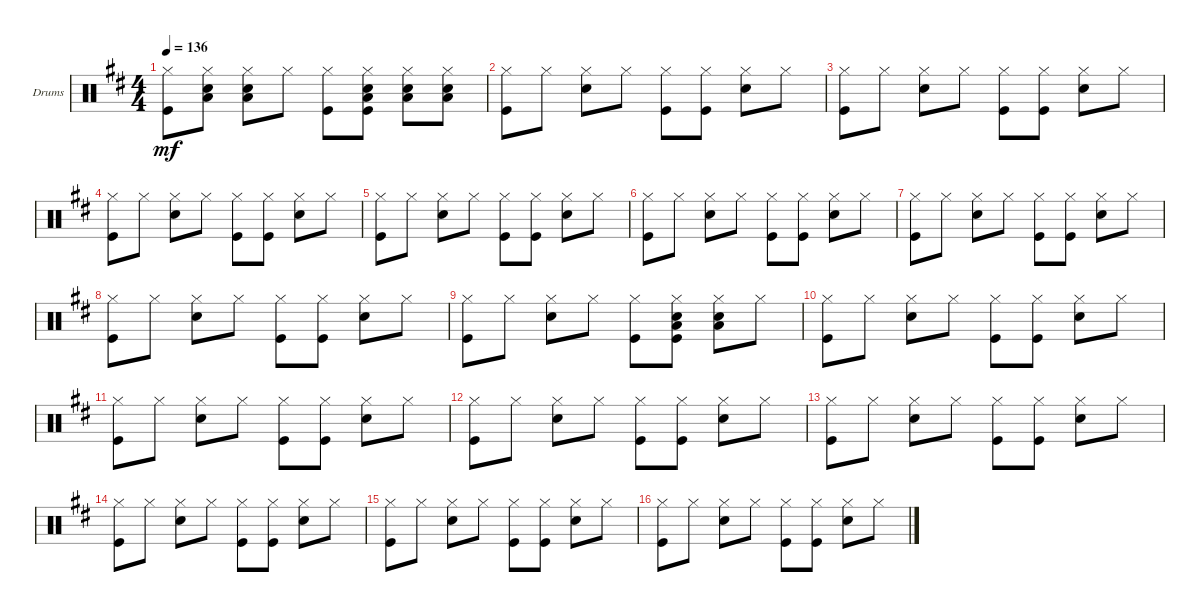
\defaultSystemsLayout 4
\bracketExtendMode groupsimilarinstruments
\firstSystemTrackNameOrientation horizontal
\otherSystemsTrackNameOrientation horizontal
\track ("Greg Bissonette Drums" "Drums") {instrument percussion}
\staff {score}
\articulation defaults
\ts (4 4)
\tempo 136
\clef neutral
\scale
0.333333
\ks d
("Kick (hit)" "Hi-Hat (closed)").8{dy mf} ("Snare (hit) 2" "Hi-Hat (closed)" "Low Tom (hit)").8 ("Snare (hit) 2" "Hi-Hat (closed)" "Low Tom (hit)").8 "Hi-Hat (closed)".8 ("Kick (hit)" "Hi-Hat (closed)").8 ("Kick (hit)" "Snare (hit) 2" "Hi-Hat (closed)" "Low Tom (hit)").8 ("Snare (hit) 2" "Hi-Hat (closed)" "Low Tom (hit)").8 ("Snare (hit) 2" "Hi-Hat (closed)" "Low Tom (hit)").8 |
\scale
0.333333 ("Kick (hit)" "Hi-Hat (closed)").8 "Hi-Hat (closed)".8 ("Snare (hit) 2" "Hi-Hat (closed)").8 "Hi-Hat (closed)".8 ("Kick (hit)" "Hi-Hat (closed)").8 ("Kick (hit)" "Hi-Hat (closed)").8 ("Snare (hit) 2" "Hi-Hat (closed)").8 "Hi-Hat (closed)".8 |
\scale
0.333333 ("Kick (hit)" "Hi-Hat (closed)").8 "Hi-Hat (closed)".8 ("Snare (hit) 2" "Hi-Hat (closed)").8 "Hi-Hat (closed)".8 ("Kick (hit)" "Hi-Hat (closed)").8 ("Kick (hit)" "Hi-Hat (closed)").8 ("Snare (hit) 2" "Hi-Hat (closed)").8 "Hi-Hat (closed)".8 |
\scale
0.333333 ("Kick (hit)" "Hi-Hat (closed)").8 "Hi-Hat (closed)".8 ("Snare (hit) 2" "Hi-Hat (closed)").8 "Hi-Hat (closed)".8 ("Kick (hit)" "Hi-Hat (closed)").8 ("Kick (hit)" "Hi-Hat (closed)").8 ("Snare (hit) 2" "Hi-Hat (closed)").8 "Hi-Hat (closed)".8 |
\scale
0.333333 ("Kick (hit)" "Hi-Hat (closed)").8 "Hi-Hat (closed)".8 ("Snare (hit) 2" "Hi-Hat (closed)").8 "Hi-Hat (closed)".8 ("Kick (hit)" "Hi-Hat (closed)").8 ("Kick (hit)" "Hi-Hat (closed)").8 ("Snare (hit) 2" "Hi-Hat (closed)").8 "Hi-Hat (closed)".8 |
\scale
0.333333 ("Kick (hit)" "Hi-Hat (closed)").8 "Hi-Hat (closed)".8 ("Snare (hit) 2" "Hi-Hat (closed)").8 "Hi-Hat (closed)".8 ("Kick (hit)" "Hi-Hat (closed)").8 ("Kick (hit)" "Hi-Hat (closed)").8 ("Snare (hit) 2" "Hi-Hat (closed)").8 "Hi-Hat (closed)".8 |
\scale
0.333333 ("Kick (hit)" "Hi-Hat (closed)").8 "Hi-Hat (closed)".8 ("Snare (hit) 2" "Hi-Hat (closed)").8 "Hi-Hat (closed)".8 ("Kick (hit)" "Hi-Hat (closed)").8 ("Kick (hit)" "Hi-Hat (closed)").8 ("Snare (hit) 2" "Hi-Hat (closed)").8 "Hi-Hat (closed)".8 |
\scale
0.333333 ("Kick (hit)" "Hi-Hat (closed)").8 "Hi-Hat (closed)".8 ("Snare (hit) 2" "Hi-Hat (closed)").8 "Hi-Hat (closed)".8 ("Kick (hit)" "Hi-Hat (closed)").8 ("Kick (hit)" "Hi-Hat (closed)").8 ("Snare (hit) 2" "Hi-Hat (closed)").8 "Hi-Hat (closed)".8 |
\scale
0.333333 ("Kick (hit)" "Hi-Hat (closed)").8 "Hi-Hat (closed)".8 ("Snare (hit) 2" "Hi-Hat (closed)").8 "Hi-Hat (closed)".8 ("Kick (hit)" "Hi-Hat (closed)").8 ("Kick (hit)" "Snare (hit) 2" "Hi-Hat (closed)" "Low Tom (hit)").8 ("Snare (hit) 2" "Hi-Hat (closed)" "Low Tom (hit)").8 "Hi-Hat (closed)".8 |
\scale
0.333333 ("Kick (hit)" "Hi-Hat (closed)").8 "Hi-Hat (closed)".8 ("Snare (hit) 2" "Hi-Hat (closed)").8 "Hi-Hat (closed)".8 ("Kick (hit)" "Hi-Hat (closed)").8 ("Kick (hit)" "Hi-Hat (closed)").8 ("Snare (hit) 2" "Hi-Hat (closed)").8 "Hi-Hat (closed)".8 |
\scale
0.333333 ("Kick (hit)" "Hi-Hat (closed)").8 "Hi-Hat (closed)".8 ("Snare (hit) 2" "Hi-Hat (closed)").8 "Hi-Hat (closed)".8 ("Kick (hit)" "Hi-Hat (closed)").8 ("Kick (hit)" "Hi-Hat (closed)").8 ("Snare (hit) 2" "Hi-Hat (closed)").8 "Hi-Hat (closed)".8 |
\scale
0.333333 ("Kick (hit)" "Hi-Hat (closed)").8 "Hi-Hat (closed)".8 ("Snare (hit) 2" "Hi-Hat (closed)").8 "Hi-Hat (closed)".8 ("Kick (hit)" "Hi-Hat (closed)").8 ("Kick (hit)" "Hi-Hat (closed)").8 ("Snare (hit) 2" "Hi-Hat (closed)").8 "Hi-Hat (closed)".8 |
\scale
0.333333 ("Kick (hit)" "Hi-Hat (closed)").8 "Hi-Hat (closed)".8 ("Snare (hit) 2" "Hi-Hat (closed)").8 "Hi-Hat (closed)".8 ("Kick (hit)" "Hi-Hat (closed)").8 ("Kick (hit)" "Hi-Hat (closed)").8 ("Snare (hit) 2" "Hi-Hat (closed)").8 "Hi-Hat (closed)".8 |
\scale
0.333333 ("Kick (hit)" "Hi-Hat (closed)").8 "Hi-Hat (closed)".8 ("Snare (hit) 2" "Hi-Hat (closed)").8 "Hi-Hat (closed)".8 ("Kick (hit)" "Hi-Hat (closed)").8 ("Kick (hit)" "Hi-Hat (closed)").8 ("Snare (hit) 2" "Hi-Hat (closed)").8 "Hi-Hat (closed)".8 |
\scale
0.333333 ("Kick (hit)" "Hi-Hat (closed)").8 "Hi-Hat (closed)".8 ("Snare (hit) 2" "Hi-Hat (closed)").8 "Hi-Hat (closed)".8 ("Kick (hit)" "Hi-Hat (closed)").8 ("Kick (hit)" "Hi-Hat (closed)").8 ("Snare (hit) 2" "Hi-Hat (closed)").8 "Hi-Hat (closed)".8 |
\scale
0.333333 ("Kick (hit)" "Hi-Hat (closed)").8 "Hi-Hat (closed)".8 ("Snare (hit) 2" "Hi-Hat (closed)").8 "Hi-Hat (closed)".8 ("Kick (hit)" "Hi-Hat (closed)").8 ("Kick (hit)" "Hi-Hat (closed)").8 ("Snare (hit) 2" "Hi-Hat (closed)").8 "Hi-Hat (closed)".8
